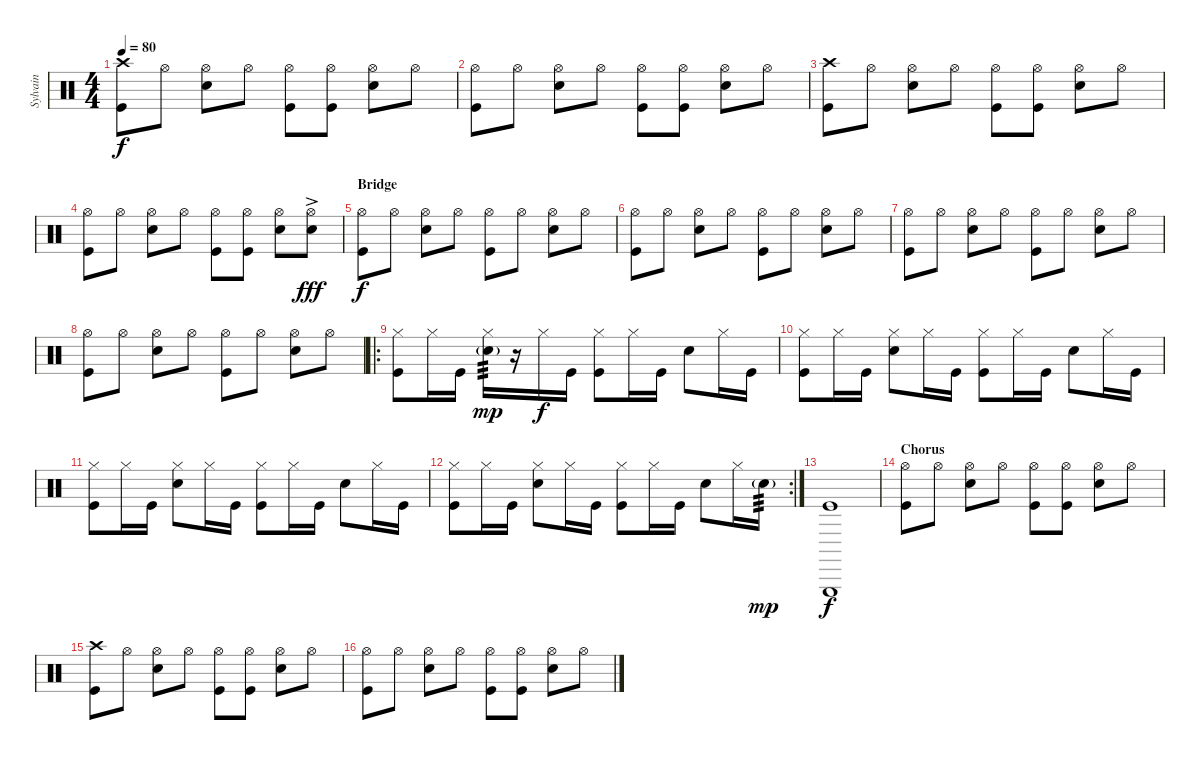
\track ("Sylvain" "Sylvain") {instrument percussion}
\staff {score}
\articulation defaults
\ts (4 4)
\tempo 80
\clef neutral
\ks c
("Crash high (hit)" "Kick (hit)").8{dy f} "Hi-Hat (open)".8 ("Hi-Hat (open)" "Electric Snare (hit)").8 "Hi-Hat (open)".8 ("Hi-Hat (open)" "Kick (hit)").8 ("Hi-Hat (open)" "Kick (hit)").8 ("Hi-Hat (open)" "Electric Snare (hit)").8 "Hi-Hat (open)".8 |
("Hi-Hat (open)" "Kick (hit)").8 "Hi-Hat (open)".8 ("Hi-Hat (open)" "Electric Snare (hit)").8 "Hi-Hat (open)".8 ("Hi-Hat (open)" "Kick (hit)").8 ("Hi-Hat (open)" "Kick (hit)").8 ("Hi-Hat (open)" "Electric Snare (hit)").8 "Hi-Hat (open)".8 |
("Crash high (hit)" "Kick (hit)").8 "Hi-Hat (open)".8 ("Hi-Hat (open)" "Electric Snare (hit)").8 "Hi-Hat (open)".8 ("Hi-Hat (open)" "Kick (hit)").8 ("Hi-Hat (open)" "Kick (hit)").8 ("Hi-Hat (open)" "Electric Snare (hit)").8 "Hi-Hat (open)".8 |
("Hi-Hat (open)" "Kick (hit)").8 "Hi-Hat (open)".8 ("Hi-Hat (open)" "Electric Snare (hit)").8 "Hi-Hat (open)".8 ("Hi-Hat (open)" "Kick (hit)").8 ("Hi-Hat (open)" "Kick (hit)").8 ("Hi-Hat (open)" "Electric Snare (hit)").8 ("Hi-Hat (open)" "Electric Snare (hit)"{ac}).8{dy fff} |
\section ("" "Bridge")
("Hi-Hat (open)" "Kick (hit)").8{dy f} "Hi-Hat (open)".8 ("Hi-Hat (open)" "Electric Snare (hit)").8 "Hi-Hat (open)".8 ("Hi-Hat (open)" "Kick (hit)").8 "Hi-Hat (open)".8 ("Hi-Hat (open)" "Electric Snare (hit)").8 "Hi-Hat (open)".8 |
("Hi-Hat (open)" "Kick (hit)").8 "Hi-Hat (open)".8 ("Hi-Hat (open)" "Electric Snare (hit)").8 "Hi-Hat (open)".8 ("Hi-Hat (open)" "Kick (hit)").8 "Hi-Hat (open)".8 ("Hi-Hat (open)" "Electric Snare (hit)").8 "Hi-Hat (open)".8 |
("Hi-Hat (open)" "Kick (hit)").8 "Hi-Hat (open)".8 ("Hi-Hat (open)" "Electric Snare (hit)").8 "Hi-Hat (open)".8 ("Hi-Hat (open)" "Kick (hit)").8 "Hi-Hat (open)".8 ("Hi-Hat (open)" "Electric Snare (hit)").8 "Hi-Hat (open)".8 |
("Hi-Hat (open)" "Kick (hit)").8 "Hi-Hat (open)".8 ("Hi-Hat (open)" "Electric Snare (hit)").8 "Hi-Hat (open)".8 ("Hi-Hat (open)" "Kick (hit)").8 "Hi-Hat (open)".8 ("Hi-Hat (open)" "Electric Snare (hit)").8 "Hi-Hat (open)".8 |
\ro
("Hi-Hat (closed)" "Kick (hit)").8 "Hi-Hat (closed)".16 "Kick (hit)".16 ("Hi-Hat (closed)" "Electric Snare (hit)"{g}).16{tp 3 dy mp} r.16 "Hi-Hat (closed)".16{dy f} "Kick (hit)".16 ("Hi-Hat (closed)" "Kick (hit)").8 "Hi-Hat (closed)".16 "Kick (hit)".16 "Electric Snare (hit)".8 "Hi-Hat (closed)".16 "Kick (hit)".16 |
("Hi-Hat (closed)" "Kick (hit)").8 "Hi-Hat (closed)".16 "Kick (hit)".16 ("Hi-Hat (closed)" "Electric Snare (hit)").8 "Hi-Hat (closed)".16 "Kick (hit)".16 ("Hi-Hat (closed)" "Kick (hit)").8 "Hi-Hat (closed)".16 "Kick (hit)".16 "Electric Snare (hit)".8 "Hi-Hat (closed)".16 "Kick (hit)".16 |
("Hi-Hat (closed)" "Kick (hit)").8 "Hi-Hat (closed)".16 "Kick (hit)".16 ("Hi-Hat (closed)" "Electric Snare (hit)").8 "Hi-Hat (closed)".16 "Kick (hit)".16 ("Hi-Hat (closed)" "Kick (hit)").8 "Hi-Hat (closed)".16 "Kick (hit)".16 "Electric Snare (hit)".8 "Hi-Hat (closed)".16 "Kick (hit)".16 |
\rc 2
("Hi-Hat (closed)" "Kick (hit)").8 "Hi-Hat (closed)".16 "Kick (hit)".16 ("Hi-Hat (closed)" "Electric Snare (hit)").8 "Hi-Hat (closed)".16 "Kick (hit)".16 ("Hi-Hat (closed)" "Kick (hit)").8 "Hi-Hat (closed)".16 "Kick (hit)".16 "Electric Snare (hit)".8 "Hi-Hat (closed)".16 "Electric Snare (hit)"{g}.16{tp 3 dy mp} |
("Triangle (hit)" "Kick (hit)").1{dy f} |
\section ("" "Chorus")
("Hi-Hat (open)" "Kick (hit)").8 "Hi-Hat (open)".8 ("Hi-Hat (open)" "Electric Snare (hit)").8 "Hi-Hat (open)".8 ("Hi-Hat (open)" "Kick (hit)").8 ("Hi-Hat (open)" "Kick (hit)").8 ("Hi-Hat (open)" "Electric Snare (hit)").8 "Hi-Hat (open)".8 |
("Crash high (hit)" "Kick (hit)").8 "Hi-Hat (open)".8 ("Hi-Hat (open)" "Electric Snare (hit)").8 "Hi-Hat (open)".8 ("Hi-Hat (open)" "Kick (hit)").8 ("Hi-Hat (open)" "Kick (hit)").8 ("Hi-Hat (open)" "Electric Snare (hit)").8 "Hi-Hat (open)".8 |
("Hi-Hat (open)" "Kick (hit)").8 "Hi-Hat (open)".8 ("Hi-Hat (open)" "Electric Snare (hit)").8 "Hi-Hat (open)".8 ("Hi-Hat (open)" "Kick (hit)").8 ("Hi-Hat (open)" "Kick (hit)").8 ("Hi-Hat (open)" "Electric Snare (hit)").8 "Hi-Hat (open)".8
